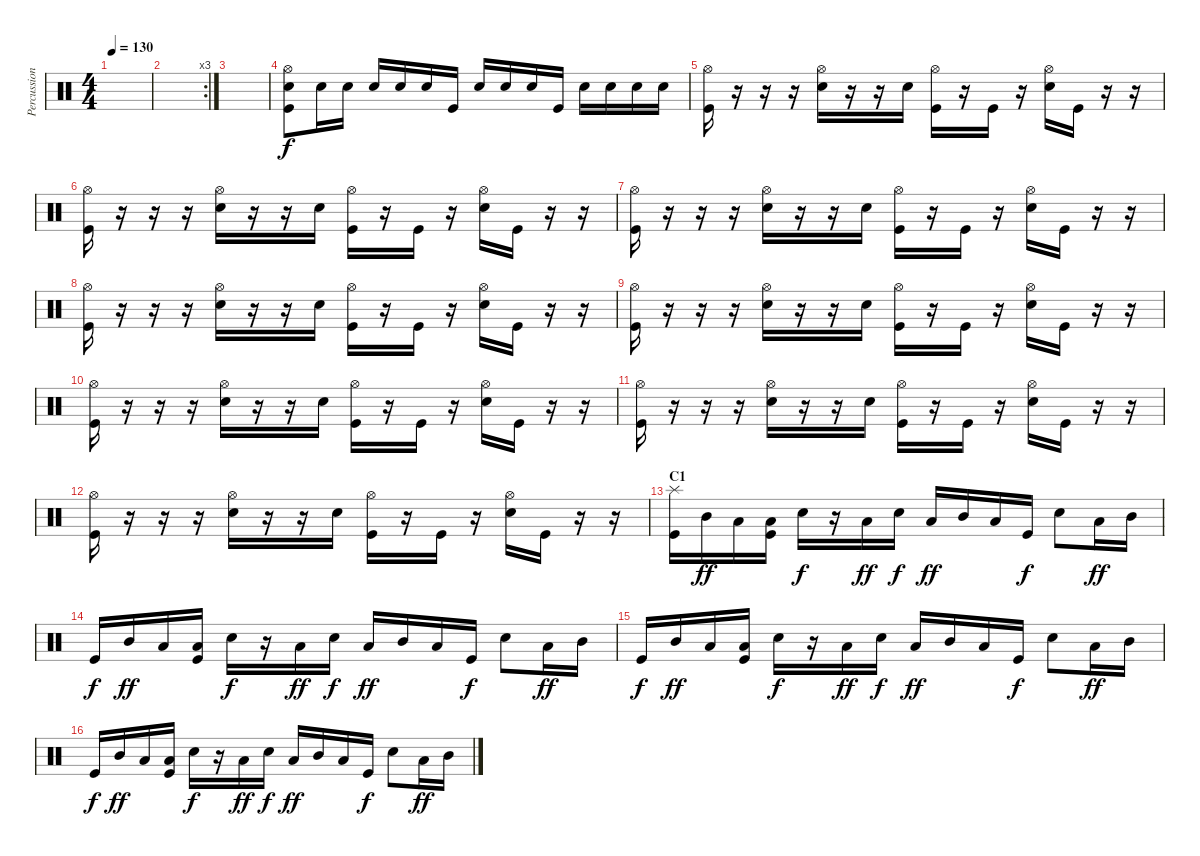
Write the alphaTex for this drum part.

\track ("Percussions" "Percussion") {instrument percussion}
\staff {score}
\articulation defaults
\ts (4 4)
\tempo 130
\clef neutral
\ks c
|
\rc 3
|
|
("Hi-Hat (open)" "Snare (hit) 2" "Kick (hit)").8 "Snare (hit) 2".16{dy f} "Snare (hit) 2".16 "Snare (hit) 2".16 "Snare (hit) 2".16 "Snare (hit) 2".16 "Kick (hit)".16 "Snare (hit) 2".16 "Snare (hit) 2".16 "Snare (hit) 2".16 "Kick (hit)".16 "Snare (hit) 2".16 "Snare (hit) 2".16 "Snare (hit) 2".16 "Snare (hit) 2".16 |
("Hi-Hat (open)" "Kick (hit)").16 r.16 r.16 r.16 ("Hi-Hat (open)" "Snare (hit) 2").16 r.16 r.16 "Snare (hit) 2".16 ("Hi-Hat (open)" "Kick (hit)").16 r.16 "Kick (hit)".16 r.16 ("Hi-Hat (open)" "Snare (hit) 2").16 "Kick (hit)".16 r.16 r.16 |
("Hi-Hat (open)" "Kick (hit)").16 r.16 r.16 r.16 ("Hi-Hat (open)" "Snare (hit) 2").16 r.16 r.16 "Snare (hit) 2".16 ("Hi-Hat (open)" "Kick (hit)").16 r.16 "Kick (hit)".16 r.16 ("Hi-Hat (open)" "Snare (hit) 2").16 "Kick (hit)".16 r.16 r.16 |
("Hi-Hat (open)" "Kick (hit)").16 r.16 r.16 r.16 ("Hi-Hat (open)" "Snare (hit) 2").16 r.16 r.16 "Snare (hit) 2".16 ("Hi-Hat (open)" "Kick (hit)").16 r.16 "Kick (hit)".16 r.16 ("Hi-Hat (open)" "Snare (hit) 2").16 "Kick (hit)".16 r.16 r.16 |
("Hi-Hat (open)" "Kick (hit)").16 r.16 r.16 r.16 ("Hi-Hat (open)" "Snare (hit) 2").16 r.16 r.16 "Snare (hit) 2".16 ("Hi-Hat (open)" "Kick (hit)").16 r.16 "Kick (hit)".16 r.16 ("Hi-Hat (open)" "Snare (hit) 2").16 "Kick (hit)".16 r.16 r.16 |
("Hi-Hat (open)" "Kick (hit)").16 r.16 r.16 r.16 ("Hi-Hat (open)" "Snare (hit) 2").16 r.16 r.16 "Snare (hit) 2".16 ("Hi-Hat (open)" "Kick (hit)").16 r.16 "Kick (hit)".16 r.16 ("Hi-Hat (open)" "Snare (hit) 2").16 "Kick (hit)".16 r.16 r.16 |
("Hi-Hat (open)" "Kick (hit)").16 r.16 r.16 r.16 ("Hi-Hat (open)" "Snare (hit) 2").16 r.16 r.16 "Snare (hit) 2".16 ("Hi-Hat (open)" "Kick (hit)").16 r.16 "Kick (hit)".16 r.16 ("Hi-Hat (open)" "Snare (hit) 2").16 "Kick (hit)".16 r.16 r.16 |
("Hi-Hat (open)" "Kick (hit)").16 r.16 r.16 r.16 ("Hi-Hat (open)" "Snare (hit) 2").16 r.16 r.16 "Snare (hit) 2".16 ("Hi-Hat (open)" "Kick (hit)").16 r.16 "Kick (hit)".16 r.16 ("Hi-Hat (open)" "Snare (hit) 2").16 "Kick (hit)".16 r.16 r.16 |
("Hi-Hat (open)" "Kick (hit)").16 r.16 r.16 r.16 ("Hi-Hat (open)" "Snare (hit) 2").16 r.16 r.16 "Snare (hit) 2".16 ("Hi-Hat (open)" "Kick (hit)").16 r.16 "Kick (hit)".16 r.16 ("Hi-Hat (open)" "Snare (hit) 2").16 "Kick (hit)".16 r.16 r.16 |
\section ("" "C1")
("Splash (hit)" "Kick (hit)").16 "Mid Tom (hit)".16{dy ff} "Low Tom (hit)".16 ("Low Tom (hit)" "Kick (hit)").16 "Snare (hit) 2".16{dy f} r.16 "Low Tom (hit)".16{dy ff} "Snare (hit) 2".16{dy f} "Low Tom (hit)".16{dy ff} "Mid Tom (hit)".16 "Low Tom (hit)".16 "Kick (hit)".16{dy f} "Snare (hit) 2".8 "Low Tom (hit)".16{dy ff} "Mid Tom (hit)".16 |
"Kick (hit)".16{dy f} "Mid Tom (hit)".16{dy ff} "Low Tom (hit)".16 ("Low Tom (hit)" "Kick (hit)").16 "Snare (hit) 2".16{dy f} r.16 "Low Tom (hit)".16{dy ff} "Snare (hit) 2".16{dy f} "Low Tom (hit)".16{dy ff} "Mid Tom (hit)".16 "Low Tom (hit)".16 "Kick (hit)".16{dy f} "Snare (hit) 2".8 "Low Tom (hit)".16{dy ff} "Mid Tom (hit)".16 |
"Kick (hit)".16{dy f} "Mid Tom (hit)".16{dy ff} "Low Tom (hit)".16 ("Low Tom (hit)" "Kick (hit)").16 "Snare (hit) 2".16{dy f} r.16 "Low Tom (hit)".16{dy ff} "Snare (hit) 2".16{dy f} "Low Tom (hit)".16{dy ff} "Mid Tom (hit)".16 "Low Tom (hit)".16 "Kick (hit)".16{dy f} "Snare (hit) 2".8 "Low Tom (hit)".16{dy ff} "Mid Tom (hit)".16 |
"Kick (hit)".16{dy f} "Mid Tom (hit)".16{dy ff} "Low Tom (hit)".16 ("Low Tom (hit)" "Kick (hit)").16 "Snare (hit) 2".16{dy f} r.16 "Low Tom (hit)".16{dy ff} "Snare (hit) 2".16{dy f} "Low Tom (hit)".16{dy ff} "Mid Tom (hit)".16 "Low Tom (hit)".16 "Kick (hit)".16{dy f} "Snare (hit) 2".8 "Low Tom (hit)".16{dy ff} "Mid Tom (hit)".16
